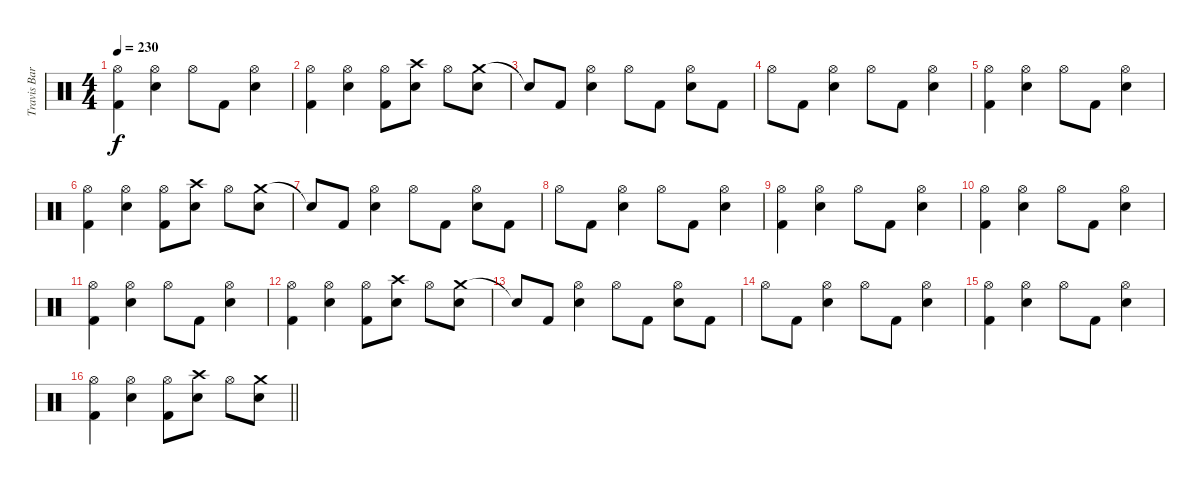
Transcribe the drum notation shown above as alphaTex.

\track ("Travis Barker - Drums" "Travis Bar") {instrument percussion}
\staff {score}
\articulation defaults
\ts (4 4)
\tempo 230
\clef neutral
\ks c
("Hi-Hat (open)" "Kick (hit) 2").4{dy f} ("Hi-Hat (open)" "Electric Snare (hit)").4 "Hi-Hat (open)".8 "Kick (hit) 2".8 ("Hi-Hat (open)" "Electric Snare (hit)").4 |
("Hi-Hat (open)" "Kick (hit) 2").4 ("Hi-Hat (open)" "Electric Snare (hit)").4 ("Hi-Hat (open)" "Kick (hit) 2").8 ("Crash high (hit)" "Electric Snare (hit)").8 "Hi-Hat (open)".8 ("Crash medium (hit)" "Electric Snare (hit)").8 |
"Snare (hit)"{t}.8 "Kick (hit) 2".8 ("Hi-Hat (open)" "Electric Snare (hit)").4 "Hi-Hat (open)".8 "Kick (hit) 2".8 ("Hi-Hat (open)" "Electric Snare (hit)").8 "Kick (hit) 2".8 |
"Hi-Hat (open)".8 "Kick (hit) 2".8 ("Hi-Hat (open)" "Electric Snare (hit)").4 "Hi-Hat (open)".8 "Kick (hit) 2".8 ("Hi-Hat (open)" "Electric Snare (hit)").4 |
("Hi-Hat (open)" "Kick (hit) 2").4 ("Hi-Hat (open)" "Electric Snare (hit)").4 "Hi-Hat (open)".8 "Kick (hit) 2".8 ("Hi-Hat (open)" "Electric Snare (hit)").4 |
("Hi-Hat (open)" "Kick (hit) 2").4 ("Hi-Hat (open)" "Electric Snare (hit)").4 ("Hi-Hat (open)" "Kick (hit) 2").8 ("Crash high (hit)" "Electric Snare (hit)").8 "Hi-Hat (open)".8 ("Crash medium (hit)" "Electric Snare (hit)").8 |
"Snare (hit)"{t}.8 "Kick (hit) 2".8 ("Hi-Hat (open)" "Electric Snare (hit)").4 "Hi-Hat (open)".8 "Kick (hit) 2".8 ("Hi-Hat (open)" "Electric Snare (hit)").8 "Kick (hit) 2".8 |
"Hi-Hat (open)".8 "Kick (hit) 2".8 ("Hi-Hat (open)" "Electric Snare (hit)").4 "Hi-Hat (open)".8 "Kick (hit) 2".8 ("Hi-Hat (open)" "Electric Snare (hit)").4 |
("Hi-Hat (open)" "Kick (hit) 2").4 ("Hi-Hat (open)" "Electric Snare (hit)").4 "Hi-Hat (open)".8 "Kick (hit) 2".8 ("Hi-Hat (open)" "Electric Snare (hit)").4 |
("Hi-Hat (open)" "Kick (hit) 2").4 ("Hi-Hat (open)" "Electric Snare (hit)").4 "Hi-Hat (open)".8 "Kick (hit) 2".8 ("Hi-Hat (open)" "Electric Snare (hit)").4 |
("Hi-Hat (open)" "Kick (hit) 2").4 ("Hi-Hat (open)" "Electric Snare (hit)").4 "Hi-Hat (open)".8 "Kick (hit) 2".8 ("Hi-Hat (open)" "Electric Snare (hit)").4 |
("Hi-Hat (open)" "Kick (hit) 2").4 ("Hi-Hat (open)" "Electric Snare (hit)").4 ("Hi-Hat (open)" "Kick (hit) 2").8 ("Crash high (hit)" "Electric Snare (hit)").8 "Hi-Hat (open)".8 ("Crash medium (hit)" "Electric Snare (hit)").8 |
"Snare (hit)"{t}.8 "Kick (hit) 2".8 ("Hi-Hat (open)" "Electric Snare (hit)").4 "Hi-Hat (open)".8 "Kick (hit) 2".8 ("Hi-Hat (open)" "Electric Snare (hit)").8 "Kick (hit) 2".8 |
"Hi-Hat (open)".8 "Kick (hit) 2".8 ("Hi-Hat (open)" "Electric Snare (hit)").4 "Hi-Hat (open)".8 "Kick (hit) 2".8 ("Hi-Hat (open)" "Electric Snare (hit)").4 |
("Hi-Hat (open)" "Kick (hit) 2").4 ("Hi-Hat (open)" "Electric Snare (hit)").4 "Hi-Hat (open)".8 "Kick (hit) 2".8 ("Hi-Hat (open)" "Electric Snare (hit)").4 |
\barLineRight lightlight
("Hi-Hat (open)" "Kick (hit) 2").4 ("Hi-Hat (open)" "Electric Snare (hit)").4 ("Hi-Hat (open)" "Kick (hit) 2").8 ("Crash high (hit)" "Electric Snare (hit)").8 "Hi-Hat (open)".8 ("Crash medium (hit)" "Electric Snare (hit)").8
